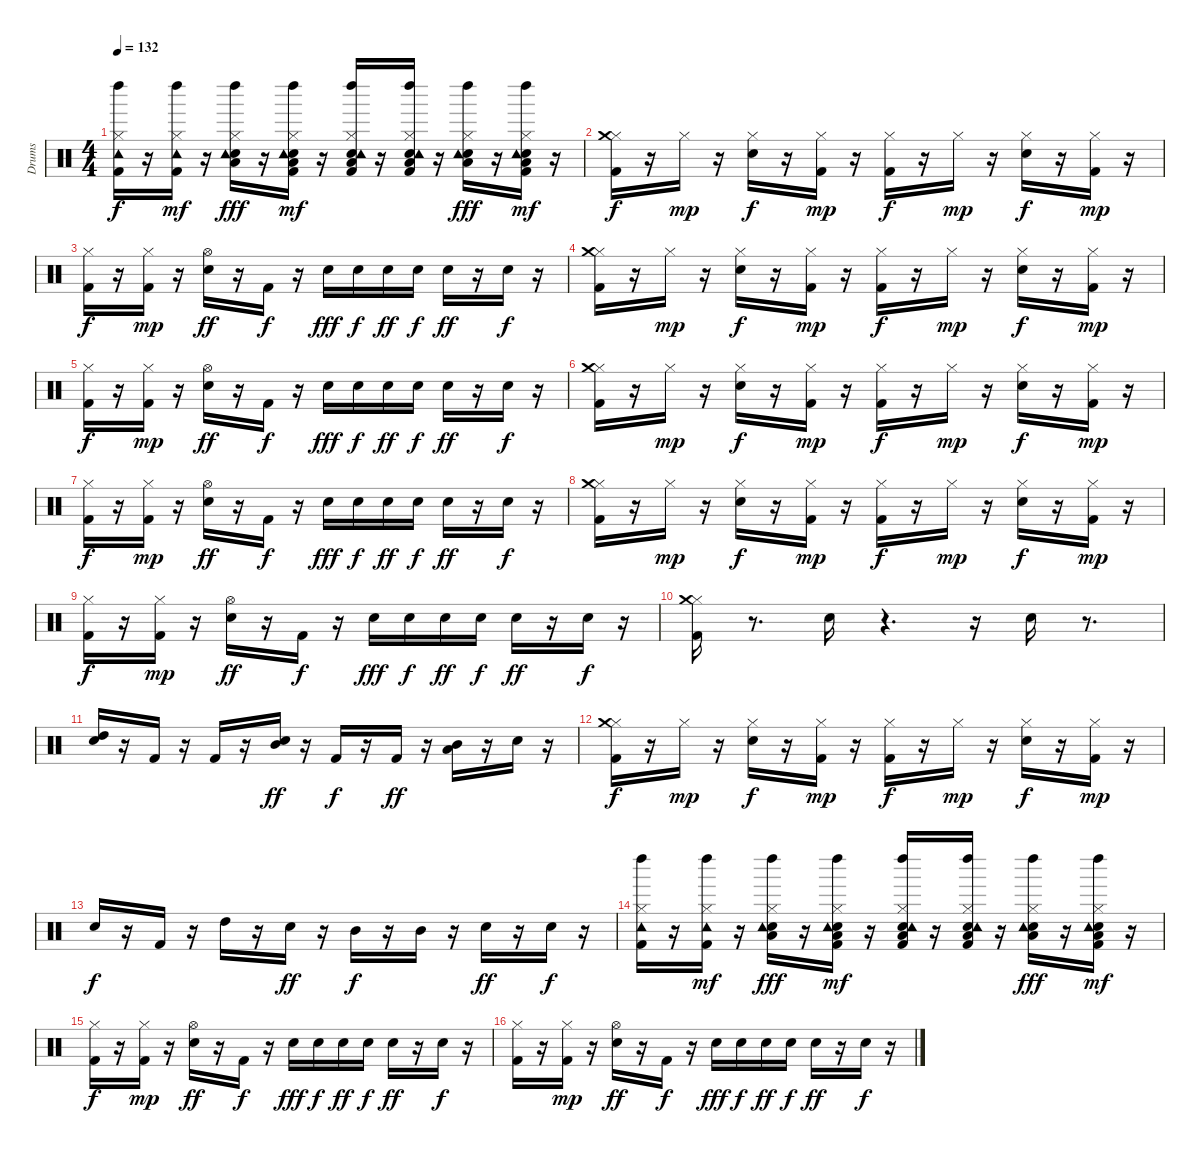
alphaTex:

\track ("Drums" "Drums") {instrument percussion}
\staff {score}
\articulation defaults
\ts (4 4)
\tempo 132
\clef neutral
\ks c
("Kick (hit) 2" "Hi-Hat (closed)" "Tambourine (hit)" "Left Maraca (hit)").16{dy f} r.16 ("Kick (hit) 2" "Hi-Hat (closed)" "Tambourine (hit)" "Left Maraca (hit)").16{dy mf} r.16 ("Snare (hit) 2" "Hi-Hat (closed)" "Low Floor Tom (hit)" "Tambourine (hit)" "Left Maraca (hit)").16{dy fff} r.16 ("Kick (hit) 2" "Snare (hit) 2" "Hi-Hat (closed)" "Low Floor Tom (hit)" "Tambourine (hit)" "Left Maraca (hit)").16{dy mf} r.16 ("Kick (hit) 2" "Snare (hit) 2" "Hi-Hat (closed)" "Low Floor Tom (hit)" "Tambourine (hit)" "Left Maraca (hit)").16 r.16 ("Kick (hit) 2" "Snare (hit) 2" "Hi-Hat (closed)" "Low Floor Tom (hit)" "Tambourine (hit)" "Left Maraca (hit)").16 r.16 ("Snare (hit) 2" "Hi-Hat (closed)" "Low Floor Tom (hit)" "Tambourine (hit)" "Left Maraca (hit)").16{dy fff} r.16 ("Kick (hit) 2" "Snare (hit) 2" "Hi-Hat (closed)" "Low Floor Tom (hit)" "Tambourine (hit)" "Left Maraca (hit)").16{dy mf} r.16 |
("Kick (hit) 2" "Hi-Hat (closed)" "Crash medium (hit)").16{dy f} r.16 "Hi-Hat (closed)".16{dy mp} r.16 ("Snare (hit) 2" "Hi-Hat (closed)").16{dy f} r.16 ("Kick (hit) 2" "Hi-Hat (closed)").16{dy mp} r.16 ("Kick (hit) 2" "Hi-Hat (closed)").16{dy f} r.16 "Hi-Hat (closed)".16{dy mp} r.16 ("Snare (hit) 2" "Hi-Hat (closed)").16{dy f} r.16 ("Kick (hit) 2" "Hi-Hat (closed)").16{dy mp} r.16 |
("Kick (hit) 2" "Hi-Hat (closed)").16{dy f} r.16 ("Kick (hit) 2" "Hi-Hat (closed)").16{dy mp} r.16 ("Snare (hit) 2" "Hi-Hat (open)").16{dy ff} r.16 "Kick (hit) 2".16{dy f} r.16 "Snare (hit) 2".16{dy fff} "Snare (hit) 2".16{dy f} "Snare (hit) 2".16{dy ff} "Snare (hit) 2".16{dy f} "Snare (hit) 2".16{dy ff} r.16 "Snare (hit) 2".16{dy f} r.16 |
("Kick (hit) 2" "Hi-Hat (closed)" "Crash medium (hit)").16 r.16 "Hi-Hat (closed)".16{dy mp} r.16 ("Snare (hit) 2" "Hi-Hat (closed)").16{dy f} r.16 ("Kick (hit) 2" "Hi-Hat (closed)").16{dy mp} r.16 ("Kick (hit) 2" "Hi-Hat (closed)").16{dy f} r.16 "Hi-Hat (closed)".16{dy mp} r.16 ("Snare (hit) 2" "Hi-Hat (closed)").16{dy f} r.16 ("Kick (hit) 2" "Hi-Hat (closed)").16{dy mp} r.16 |
("Kick (hit) 2" "Hi-Hat (closed)").16{dy f} r.16 ("Kick (hit) 2" "Hi-Hat (closed)").16{dy mp} r.16 ("Snare (hit) 2" "Hi-Hat (open)").16{dy ff} r.16 "Kick (hit) 2".16{dy f} r.16 "Snare (hit) 2".16{dy fff} "Snare (hit) 2".16{dy f} "Snare (hit) 2".16{dy ff} "Snare (hit) 2".16{dy f} "Snare (hit) 2".16{dy ff} r.16 "Snare (hit) 2".16{dy f} r.16 |
("Kick (hit) 2" "Hi-Hat (closed)" "Crash medium (hit)").16 r.16 "Hi-Hat (closed)".16{dy mp} r.16 ("Snare (hit) 2" "Hi-Hat (closed)").16{dy f} r.16 ("Kick (hit) 2" "Hi-Hat (closed)").16{dy mp} r.16 ("Kick (hit) 2" "Hi-Hat (closed)").16{dy f} r.16 "Hi-Hat (closed)".16{dy mp} r.16 ("Snare (hit) 2" "Hi-Hat (closed)").16{dy f} r.16 ("Kick (hit) 2" "Hi-Hat (closed)").16{dy mp} r.16 |
("Kick (hit) 2" "Hi-Hat (closed)").16{dy f} r.16 ("Kick (hit) 2" "Hi-Hat (closed)").16{dy mp} r.16 ("Snare (hit) 2" "Hi-Hat (open)").16{dy ff} r.16 "Kick (hit) 2".16{dy f} r.16 "Snare (hit) 2".16{dy fff} "Snare (hit) 2".16{dy f} "Snare (hit) 2".16{dy ff} "Snare (hit) 2".16{dy f} "Snare (hit) 2".16{dy ff} r.16 "Snare (hit) 2".16{dy f} r.16 |
("Kick (hit) 2" "Hi-Hat (closed)" "Crash medium (hit)").16 r.16 "Hi-Hat (closed)".16{dy mp} r.16 ("Snare (hit) 2" "Hi-Hat (closed)").16{dy f} r.16 ("Kick (hit) 2" "Hi-Hat (closed)").16{dy mp} r.16 ("Kick (hit) 2" "Hi-Hat (closed)").16{dy f} r.16 "Hi-Hat (closed)".16{dy mp} r.16 ("Snare (hit) 2" "Hi-Hat (closed)").16{dy f} r.16 ("Kick (hit) 2" "Hi-Hat (closed)").16{dy mp} r.16 |
("Kick (hit) 2" "Hi-Hat (closed)").16{dy f} r.16 ("Kick (hit) 2" "Hi-Hat (closed)").16{dy mp} r.16 ("Snare (hit) 2" "Hi-Hat (open)").16{dy ff} r.16 "Kick (hit) 2".16{dy f} r.16 "Snare (hit) 2".16{dy fff} "Snare (hit) 2".16{dy f} "Snare (hit) 2".16{dy ff} "Snare (hit) 2".16{dy f} "Snare (hit) 2".16{dy ff} r.16 "Snare (hit) 2".16{dy f} r.16 |
("Kick (hit) 2" "Hi-Hat (closed)" "Crash medium (hit)").16 r.8{d} "Snare (hit) 2".16 r.4{d} r.16 "Snare (hit) 2".16 r.8{d} |
("Snare (hit) 2" "High Tom (hit)").16 r.16 "Kick (hit) 2".16 r.16 "Kick (hit) 2".16 r.16 ("Snare (hit) 2" "Mid Tom (hit)").16{dy ff} r.16 "Kick (hit) 2".16{dy f} r.16 "Kick (hit) 2".16{dy ff} r.16 ("Low Floor Tom (hit)" "Mid Tom (hit)").16 r.16 "Snare (hit) 2".16 r.16 |
("Kick (hit) 2" "Hi-Hat (closed)" "Crash medium (hit)").16{dy f} r.16 "Hi-Hat (closed)".16{dy mp} r.16 ("Snare (hit) 2" "Hi-Hat (closed)").16{dy f} r.16 ("Kick (hit) 2" "Hi-Hat (closed)").16{dy mp} r.16 ("Kick (hit) 2" "Hi-Hat (closed)").16{dy f} r.16 "Hi-Hat (closed)".16{dy mp} r.16 ("Snare (hit) 2" "Hi-Hat (closed)").16{dy f} r.16 ("Kick (hit) 2" "Hi-Hat (closed)").16{dy mp} r.16 |
"Snare (hit) 2".16{dy f} r.16 "Kick (hit) 2".16 r.16 "High Tom (hit)".16 r.16 "Snare (hit) 2".16{dy ff} r.16 "Mid Tom (hit)".16{dy f} r.16 "Mid Tom (hit)".16 r.16 "Snare (hit) 2".16{dy ff} r.16 "Snare (hit) 2".16{dy f} r.16 |
("Kick (hit) 2" "Hi-Hat (closed)" "Tambourine (hit)" "Left Maraca (hit)").16 r.16 ("Kick (hit) 2" "Hi-Hat (closed)" "Tambourine (hit)" "Left Maraca (hit)").16{dy mf} r.16 ("Snare (hit) 2" "Hi-Hat (closed)" "Low Floor Tom (hit)" "Tambourine (hit)" "Left Maraca (hit)").16{dy fff} r.16 ("Kick (hit) 2" "Snare (hit) 2" "Hi-Hat (closed)" "Low Floor Tom (hit)" "Tambourine (hit)" "Left Maraca (hit)").16{dy mf} r.16 ("Kick (hit) 2" "Snare (hit) 2" "Hi-Hat (closed)" "Low Floor Tom (hit)" "Tambourine (hit)" "Left Maraca (hit)").16 r.16 ("Kick (hit) 2" "Snare (hit) 2" "Hi-Hat (closed)" "Low Floor Tom (hit)" "Tambourine (hit)" "Left Maraca (hit)").16 r.16 ("Snare (hit) 2" "Hi-Hat (closed)" "Low Floor Tom (hit)" "Tambourine (hit)" "Left Maraca (hit)").16{dy fff} r.16 ("Kick (hit) 2" "Snare (hit) 2" "Hi-Hat (closed)" "Low Floor Tom (hit)" "Tambourine (hit)" "Left Maraca (hit)").16{dy mf} r.16 |
("Kick (hit) 2" "Hi-Hat (closed)").16{dy f} r.16 ("Kick (hit) 2" "Hi-Hat (closed)").16{dy mp} r.16 ("Snare (hit) 2" "Hi-Hat (open)").16{dy ff} r.16 "Kick (hit) 2".16{dy f} r.16 "Snare (hit) 2".16{dy fff} "Snare (hit) 2".16{dy f} "Snare (hit) 2".16{dy ff} "Snare (hit) 2".16{dy f} "Snare (hit) 2".16{dy ff} r.16 "Snare (hit) 2".16{dy f} r.16 |
("Kick (hit) 2" "Hi-Hat (closed)").16 r.16 ("Kick (hit) 2" "Hi-Hat (closed)").16{dy mp} r.16 ("Snare (hit) 2" "Hi-Hat (open)").16{dy ff} r.16 "Kick (hit) 2".16{dy f} r.16 "Snare (hit) 2".16{dy fff} "Snare (hit) 2".16{dy f} "Snare (hit) 2".16{dy ff} "Snare (hit) 2".16{dy f} "Snare (hit) 2".16{dy ff} r.16 "Snare (hit) 2".16{dy f} r.16
